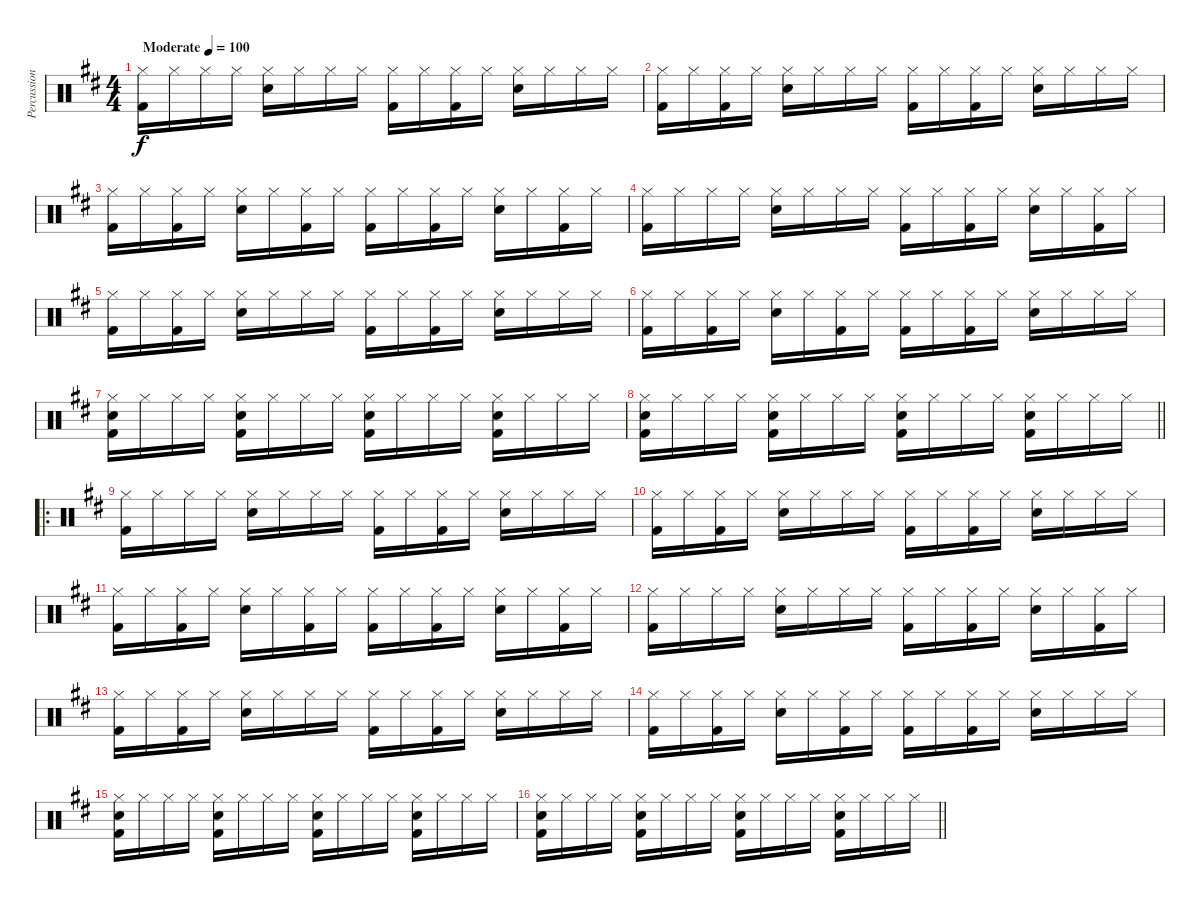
\track ("Percussion" "Percussion") {instrument percussion}
\staff {score}
\articulation defaults
\ts (4 4)
\tempo (100 "Moderate")
\clef neutral
\ks d
("Hi-Hat (closed)" "Kick (hit) 2").16{dy f} "Hi-Hat (closed)".16 "Hi-Hat (closed)".16 "Hi-Hat (closed)".16 ("Hi-Hat (closed)" "Snare (hit) 2").16 "Hi-Hat (closed)".16 "Hi-Hat (closed)".16 "Hi-Hat (closed)".16 ("Hi-Hat (closed)" "Kick (hit) 2").16 "Hi-Hat (closed)".16 ("Hi-Hat (closed)" "Kick (hit) 2").16 "Hi-Hat (closed)".16 ("Hi-Hat (closed)" "Snare (hit) 2").16 "Hi-Hat (closed)".16 "Hi-Hat (closed)".16 "Hi-Hat (closed)".16 |
("Hi-Hat (closed)" "Kick (hit) 2").16 "Hi-Hat (closed)".16 ("Hi-Hat (closed)" "Kick (hit) 2").16 "Hi-Hat (closed)".16 ("Hi-Hat (closed)" "Snare (hit) 2").16 "Hi-Hat (closed)".16 "Hi-Hat (closed)".16 "Hi-Hat (closed)".16 ("Hi-Hat (closed)" "Kick (hit) 2").16 "Hi-Hat (closed)".16 ("Hi-Hat (closed)" "Kick (hit) 2").16 "Hi-Hat (closed)".16 ("Hi-Hat (closed)" "Snare (hit) 2").16 "Hi-Hat (closed)".16 "Hi-Hat (closed)".16 "Hi-Hat (closed)".16 |
("Hi-Hat (closed)" "Kick (hit) 2").16 "Hi-Hat (closed)".16 ("Hi-Hat (closed)" "Kick (hit) 2").16 "Hi-Hat (closed)".16 ("Hi-Hat (closed)" "Snare (hit) 2").16 "Hi-Hat (closed)".16 ("Hi-Hat (closed)" "Kick (hit) 2").16 "Hi-Hat (closed)".16 ("Hi-Hat (closed)" "Kick (hit) 2").16 "Hi-Hat (closed)".16 ("Hi-Hat (closed)" "Kick (hit) 2").16 "Hi-Hat (closed)".16 ("Hi-Hat (closed)" "Snare (hit) 2").16 "Hi-Hat (closed)".16 ("Hi-Hat (closed)" "Kick (hit) 2").16 "Hi-Hat (closed)".16 |
("Hi-Hat (closed)" "Kick (hit) 2").16 "Hi-Hat (closed)".16 "Hi-Hat (closed)".16 "Hi-Hat (closed)".16 ("Hi-Hat (closed)" "Snare (hit) 2").16 "Hi-Hat (closed)".16 "Hi-Hat (closed)".16 "Hi-Hat (closed)".16 ("Hi-Hat (closed)" "Kick (hit) 2").16 "Hi-Hat (closed)".16 ("Hi-Hat (closed)" "Kick (hit) 2").16 "Hi-Hat (closed)".16 ("Hi-Hat (closed)" "Snare (hit) 2").16 "Hi-Hat (closed)".16 ("Hi-Hat (closed)" "Kick (hit) 2").16 "Hi-Hat (closed)".16 |
("Hi-Hat (closed)" "Kick (hit) 2").16 "Hi-Hat (closed)".16 ("Hi-Hat (closed)" "Kick (hit) 2").16 "Hi-Hat (closed)".16 ("Hi-Hat (closed)" "Snare (hit) 2").16 "Hi-Hat (closed)".16 "Hi-Hat (closed)".16 "Hi-Hat (closed)".16 ("Hi-Hat (closed)" "Kick (hit) 2").16 "Hi-Hat (closed)".16 ("Hi-Hat (closed)" "Kick (hit) 2").16 "Hi-Hat (closed)".16 ("Hi-Hat (closed)" "Snare (hit) 2").16 "Hi-Hat (closed)".16 "Hi-Hat (closed)".16 "Hi-Hat (closed)".16 |
("Hi-Hat (closed)" "Kick (hit) 2").16 "Hi-Hat (closed)".16 ("Hi-Hat (closed)" "Kick (hit) 2").16 "Hi-Hat (closed)".16 ("Hi-Hat (closed)" "Snare (hit) 2").16 "Hi-Hat (closed)".16 ("Hi-Hat (closed)" "Kick (hit) 2").16 "Hi-Hat (closed)".16 ("Hi-Hat (closed)" "Kick (hit) 2").16 "Hi-Hat (closed)".16 ("Hi-Hat (closed)" "Kick (hit) 2").16 "Hi-Hat (closed)".16 ("Hi-Hat (closed)" "Snare (hit) 2").16 "Hi-Hat (closed)".16 "Hi-Hat (closed)".16 "Hi-Hat (closed)".16 |
("Hi-Hat (closed)" "Snare (hit) 2" "Kick (hit) 2").16 "Hi-Hat (closed)".16 "Hi-Hat (closed)".16 "Hi-Hat (closed)".16 ("Hi-Hat (closed)" "Kick (hit) 2" "Snare (hit) 2").16 "Hi-Hat (closed)".16 "Hi-Hat (closed)".16 "Hi-Hat (closed)".16 ("Hi-Hat (closed)" "Snare (hit) 2" "Kick (hit) 2").16 "Hi-Hat (closed)".16 "Hi-Hat (closed)".16 "Hi-Hat (closed)".16 ("Hi-Hat (closed)" "Snare (hit) 2" "Kick (hit) 2").16 "Hi-Hat (closed)".16 "Hi-Hat (closed)".16 "Hi-Hat (closed)".16 |
\barLineRight lightlight
("Hi-Hat (closed)" "Snare (hit) 2" "Kick (hit) 2").16 "Hi-Hat (closed)".16 "Hi-Hat (closed)".16 "Hi-Hat (closed)".16 ("Hi-Hat (closed)" "Kick (hit) 2" "Snare (hit) 2").16 "Hi-Hat (closed)".16 "Hi-Hat (closed)".16 "Hi-Hat (closed)".16 ("Hi-Hat (closed)" "Snare (hit) 2" "Kick (hit) 2").16 "Hi-Hat (closed)".16 "Hi-Hat (closed)".16 "Hi-Hat (closed)".16 ("Hi-Hat (closed)" "Snare (hit) 2" "Kick (hit) 2").16 "Hi-Hat (closed)".16 "Hi-Hat (closed)".16 "Hi-Hat (closed)".16 |
\ro
("Hi-Hat (closed)" "Kick (hit) 2").16 "Hi-Hat (closed)".16 "Hi-Hat (closed)".16 "Hi-Hat (closed)".16 ("Hi-Hat (closed)" "Snare (hit) 2").16 "Hi-Hat (closed)".16 "Hi-Hat (closed)".16 "Hi-Hat (closed)".16 ("Hi-Hat (closed)" "Kick (hit) 2").16 "Hi-Hat (closed)".16 ("Hi-Hat (closed)" "Kick (hit) 2").16 "Hi-Hat (closed)".16 ("Hi-Hat (closed)" "Snare (hit) 2").16 "Hi-Hat (closed)".16 "Hi-Hat (closed)".16 "Hi-Hat (closed)".16 |
("Hi-Hat (closed)" "Kick (hit) 2").16 "Hi-Hat (closed)".16 ("Hi-Hat (closed)" "Kick (hit) 2").16 "Hi-Hat (closed)".16 ("Hi-Hat (closed)" "Snare (hit) 2").16 "Hi-Hat (closed)".16 "Hi-Hat (closed)".16 "Hi-Hat (closed)".16 ("Hi-Hat (closed)" "Kick (hit) 2").16 "Hi-Hat (closed)".16 ("Hi-Hat (closed)" "Kick (hit) 2").16 "Hi-Hat (closed)".16 ("Hi-Hat (closed)" "Snare (hit) 2").16 "Hi-Hat (closed)".16 "Hi-Hat (closed)".16 "Hi-Hat (closed)".16 |
("Hi-Hat (closed)" "Kick (hit) 2").16 "Hi-Hat (closed)".16 ("Hi-Hat (closed)" "Kick (hit) 2").16 "Hi-Hat (closed)".16 ("Hi-Hat (closed)" "Snare (hit) 2").16 "Hi-Hat (closed)".16 ("Hi-Hat (closed)" "Kick (hit) 2").16 "Hi-Hat (closed)".16 ("Hi-Hat (closed)" "Kick (hit) 2").16 "Hi-Hat (closed)".16 ("Hi-Hat (closed)" "Kick (hit) 2").16 "Hi-Hat (closed)".16 ("Hi-Hat (closed)" "Snare (hit) 2").16 "Hi-Hat (closed)".16 ("Hi-Hat (closed)" "Kick (hit) 2").16 "Hi-Hat (closed)".16 |
("Hi-Hat (closed)" "Kick (hit) 2").16 "Hi-Hat (closed)".16 "Hi-Hat (closed)".16 "Hi-Hat (closed)".16 ("Hi-Hat (closed)" "Snare (hit) 2").16 "Hi-Hat (closed)".16 "Hi-Hat (closed)".16 "Hi-Hat (closed)".16 ("Hi-Hat (closed)" "Kick (hit) 2").16 "Hi-Hat (closed)".16 ("Hi-Hat (closed)" "Kick (hit) 2").16 "Hi-Hat (closed)".16 ("Hi-Hat (closed)" "Snare (hit) 2").16 "Hi-Hat (closed)".16 ("Hi-Hat (closed)" "Kick (hit) 2").16 "Hi-Hat (closed)".16 |
("Hi-Hat (closed)" "Kick (hit) 2").16 "Hi-Hat (closed)".16 ("Hi-Hat (closed)" "Kick (hit) 2").16 "Hi-Hat (closed)".16 ("Hi-Hat (closed)" "Snare (hit) 2").16 "Hi-Hat (closed)".16 "Hi-Hat (closed)".16 "Hi-Hat (closed)".16 ("Hi-Hat (closed)" "Kick (hit) 2").16 "Hi-Hat (closed)".16 ("Hi-Hat (closed)" "Kick (hit) 2").16 "Hi-Hat (closed)".16 ("Hi-Hat (closed)" "Snare (hit) 2").16 "Hi-Hat (closed)".16 "Hi-Hat (closed)".16 "Hi-Hat (closed)".16 |
("Hi-Hat (closed)" "Kick (hit) 2").16 "Hi-Hat (closed)".16 ("Hi-Hat (closed)" "Kick (hit) 2").16 "Hi-Hat (closed)".16 ("Hi-Hat (closed)" "Snare (hit) 2").16 "Hi-Hat (closed)".16 ("Hi-Hat (closed)" "Kick (hit) 2").16 "Hi-Hat (closed)".16 ("Hi-Hat (closed)" "Kick (hit) 2").16 "Hi-Hat (closed)".16 ("Hi-Hat (closed)" "Kick (hit) 2").16 "Hi-Hat (closed)".16 ("Hi-Hat (closed)" "Snare (hit) 2").16 "Hi-Hat (closed)".16 "Hi-Hat (closed)".16 "Hi-Hat (closed)".16 |
("Hi-Hat (closed)" "Snare (hit) 2" "Kick (hit) 2").16 "Hi-Hat (closed)".16 "Hi-Hat (closed)".16 "Hi-Hat (closed)".16 ("Hi-Hat (closed)" "Kick (hit) 2" "Snare (hit) 2").16 "Hi-Hat (closed)".16 "Hi-Hat (closed)".16 "Hi-Hat (closed)".16 ("Hi-Hat (closed)" "Snare (hit) 2" "Kick (hit) 2").16 "Hi-Hat (closed)".16 "Hi-Hat (closed)".16 "Hi-Hat (closed)".16 ("Hi-Hat (closed)" "Snare (hit) 2" "Kick (hit) 2").16 "Hi-Hat (closed)".16 "Hi-Hat (closed)".16 "Hi-Hat (closed)".16 |
\barLineRight lightlight
("Hi-Hat (closed)" "Snare (hit) 2" "Kick (hit) 2").16 "Hi-Hat (closed)".16 "Hi-Hat (closed)".16 "Hi-Hat (closed)".16 ("Hi-Hat (closed)" "Kick (hit) 2" "Snare (hit) 2").16 "Hi-Hat (closed)".16 "Hi-Hat (closed)".16 "Hi-Hat (closed)".16 ("Hi-Hat (closed)" "Snare (hit) 2" "Kick (hit) 2").16 "Hi-Hat (closed)".16 "Hi-Hat (closed)".16 "Hi-Hat (closed)".16 ("Hi-Hat (closed)" "Snare (hit) 2" "Kick (hit) 2").16 "Hi-Hat (closed)".16 "Hi-Hat (closed)".16 "Hi-Hat (closed)".16
